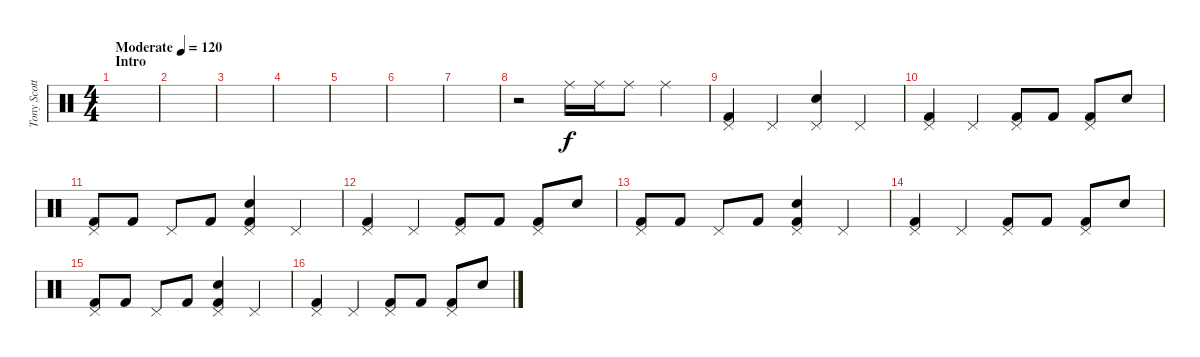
\track ("Tony Scotto" "Tony Scott") {instrument percussion}
\staff {score}
\articulation defaults
\ts (4 4)
\section ("" "Intro")
\tempo (120 "Moderate")
\clef neutral
\ks c
|
|
|
|
|
|
|
r.2 "Ride (middle)".16 "Ride (middle)".16 "Ride (middle)".8 "Ride (middle)".4 |
("Pedal Hi-Hat (hit)" "Kick (hit) 2").4 "Pedal Hi-Hat (hit)".4 ("Pedal Hi-Hat (hit)" "Snare (hit) 2").4 "Pedal Hi-Hat (hit)".4 |
("Pedal Hi-Hat (hit)" "Kick (hit) 2").4 "Pedal Hi-Hat (hit)".4 ("Pedal Hi-Hat (hit)" "Kick (hit) 2").8 "Kick (hit) 2".8 ("Pedal Hi-Hat (hit)" "Kick (hit) 2").8 "Snare (hit) 2".8 |
("Pedal Hi-Hat (hit)" "Kick (hit) 2").8 "Kick (hit) 2".8 "Pedal Hi-Hat (hit)".8 "Kick (hit) 2".8 ("Pedal Hi-Hat (hit)" "Snare (hit) 2" "Kick (hit) 2").4 "Pedal Hi-Hat (hit)".4 |
("Pedal Hi-Hat (hit)" "Kick (hit) 2").4 "Pedal Hi-Hat (hit)".4 ("Pedal Hi-Hat (hit)" "Kick (hit) 2").8 "Kick (hit) 2".8 ("Pedal Hi-Hat (hit)" "Kick (hit) 2").8 "Snare (hit) 2".8 |
("Pedal Hi-Hat (hit)" "Kick (hit) 2").8 "Kick (hit) 2".8 "Pedal Hi-Hat (hit)".8 "Kick (hit) 2".8 ("Pedal Hi-Hat (hit)" "Snare (hit) 2" "Kick (hit) 2").4 "Pedal Hi-Hat (hit)".4 |
("Pedal Hi-Hat (hit)" "Kick (hit) 2").4 "Pedal Hi-Hat (hit)".4 ("Pedal Hi-Hat (hit)" "Kick (hit) 2").8 "Kick (hit) 2".8 ("Pedal Hi-Hat (hit)" "Kick (hit) 2").8 "Snare (hit) 2".8 |
("Pedal Hi-Hat (hit)" "Kick (hit) 2").8 "Kick (hit) 2".8 "Pedal Hi-Hat (hit)".8 "Kick (hit) 2".8 ("Pedal Hi-Hat (hit)" "Snare (hit) 2" "Kick (hit) 2").4 "Pedal Hi-Hat (hit)".4 |
("Pedal Hi-Hat (hit)" "Kick (hit) 2").4 "Pedal Hi-Hat (hit)".4 ("Pedal Hi-Hat (hit)" "Kick (hit) 2").8 "Kick (hit) 2".8 ("Pedal Hi-Hat (hit)" "Kick (hit) 2").8 "Snare (hit) 2".8
